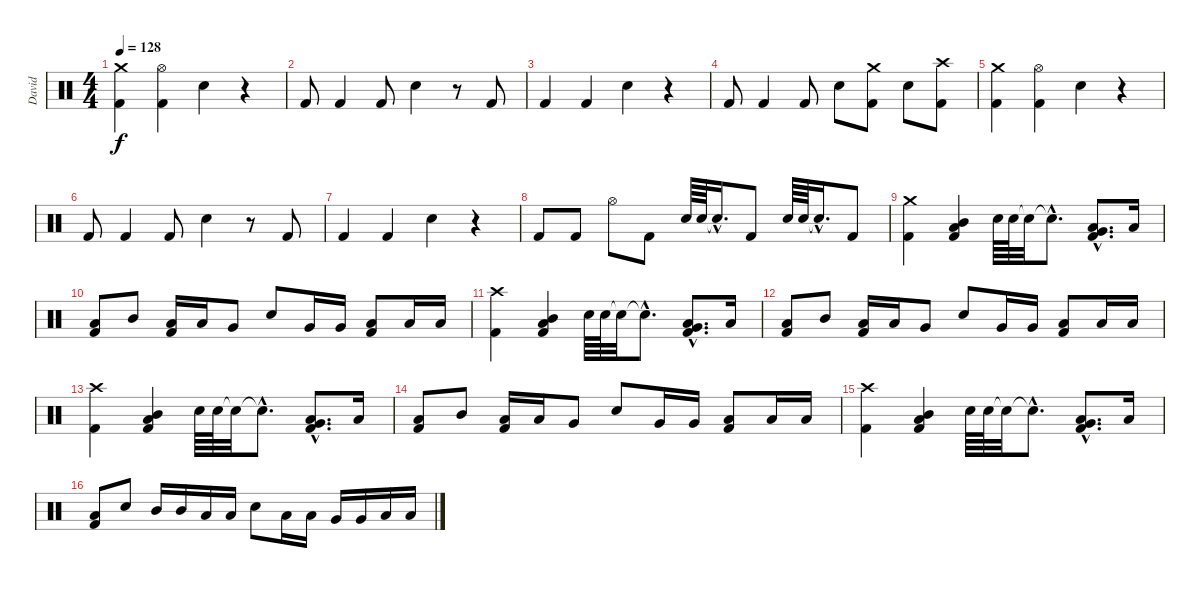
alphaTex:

\track ("David" "David") {instrument percussion}
\staff {score}
\articulation defaults
\ts (4 4)
\tempo 128
\clef neutral
\ks c
("Crash medium (hit)" "Kick (hit) 2").4{dy f} ("Hi-Hat (open)" "Kick (hit) 2").4 "Snare (hit) 2".4 r.4 |
"Kick (hit) 2".8 "Kick (hit) 2".4 "Kick (hit) 2".8 "Snare (hit) 2".4 r.8 "Kick (hit) 2".8 |
"Kick (hit) 2".4 "Kick (hit) 2".4 "Snare (hit) 2".4 r.4 |
"Kick (hit) 2".8 "Kick (hit) 2".4 "Kick (hit) 2".8 "Snare (hit) 2".8 ("Crash medium (hit)" "Kick (hit) 2").8 "Snare (hit) 2".8 ("Crash high (hit)" "Kick (hit) 2").8 |
("Crash medium (hit)" "Kick (hit) 2").4 ("Hi-Hat (open)" "Kick (hit) 2").4 "Snare (hit) 2".4 r.4 |
"Kick (hit) 2".8 "Kick (hit) 2".4 "Kick (hit) 2".8 "Snare (hit) 2".4 r.8 "Kick (hit) 2".8 |
"Kick (hit) 2".4 "Kick (hit) 2".4 "Snare (hit) 2".4 r.4 |
"Kick (hit) 2".8 "Kick (hit) 2".8 "Hi-Hat (open)".8 "Kick (hit) 2".8 "Snare (hit) 2".64 "Snare (hit) 2".64 "Snare (hit)"{hac t}.16{d} "Kick (hit) 2".8 "Snare (hit) 2".64 "Snare (hit) 2".64 "Snare (hit)"{hac t}.16{d} "Kick (hit) 2".8 |
("Crash medium (hit)" "Kick (hit) 2").4 ("Mid Tom (hit)" "Low Tom (hit)" "Kick (hit) 2").4 "Snare (hit) 2".64 "Snare (hit) 2".64 "Snare (hit)"{t}.32 "Snare (hit)"{hac t}.8{d} ("Low Tom (hit)"{hac} "Very Low Tom (hit)"{hac} "Kick (hit) 2"{hac}).8{d} "Low Tom (hit)".16 |
("Low Tom (hit)" "Kick (hit) 2").8 "Mid Tom (hit)".8 ("Low Tom (hit)" "Kick (hit) 2").16 "Low Tom (hit)".16 "Very Low Tom (hit)".8 "Snare (hit) 2".8 "Very Low Tom (hit)".16 "Very Low Tom (hit)".16 ("Low Floor Tom (hit)" "Kick (hit) 2").8 "Low Floor Tom (hit)".16 "Low Floor Tom (hit)".16 |
("Crash high (hit)" "Kick (hit) 2").4 ("Mid Tom (hit)" "Low Tom (hit)" "Kick (hit) 2").4 "Snare (hit) 2".64 "Snare (hit) 2".64 "Snare (hit)"{t}.32 "Snare (hit)"{hac t}.8{d} ("Low Tom (hit)"{hac} "Very Low Tom (hit)"{hac} "Kick (hit) 2"{hac}).8{d} "Low Tom (hit)".16 |
("Low Tom (hit)" "Kick (hit) 2").8 "Mid Tom (hit)".8 ("Low Tom (hit)" "Kick (hit) 2").16 "Low Tom (hit)".16 "Very Low Tom (hit)".8 "Snare (hit) 2".8 "Very Low Tom (hit)".16 "Very Low Tom (hit)".16 ("Low Floor Tom (hit)" "Kick (hit) 2").8 "Low Floor Tom (hit)".16 "Low Floor Tom (hit)".16 |
("Crash high (hit)" "Kick (hit) 2").4 ("Mid Tom (hit)" "Low Tom (hit)" "Kick (hit) 2").4 "Snare (hit) 2".64 "Snare (hit) 2".64 "Snare (hit)"{t}.32 "Snare (hit)"{hac t}.8{d} ("Low Tom (hit)"{hac} "Very Low Tom (hit)"{hac} "Kick (hit) 2"{hac}).8{d} "Low Tom (hit)".16 |
("Low Tom (hit)" "Kick (hit) 2").8 "Mid Tom (hit)".8 ("Low Tom (hit)" "Kick (hit) 2").16 "Low Tom (hit)".16 "Very Low Tom (hit)".8 "Snare (hit) 2".8 "Very Low Tom (hit)".16 "Very Low Tom (hit)".16 ("Low Floor Tom (hit)" "Kick (hit) 2").8 "Low Floor Tom (hit)".16 "Low Floor Tom (hit)".16 |
("Crash high (hit)" "Kick (hit) 2").4 ("Mid Tom (hit)" "Low Tom (hit)" "Kick (hit) 2").4 "Snare (hit) 2".64 "Snare (hit) 2".64 "Snare (hit)"{t}.32 "Snare (hit)"{hac t}.8{d} ("Low Tom (hit)"{hac} "Very Low Tom (hit)"{hac} "Kick (hit) 2"{hac}).8{d} "Low Tom (hit)".16 |
("Low Tom (hit)" "Kick (hit) 2").8 "Snare (hit) 2".8 "Mid Tom (hit)".16 "Mid Tom (hit)".16 "Low Tom (hit)".16 "Low Tom (hit)".16 "Snare (hit) 2".8 "Low Tom (hit)".16 "Low Tom (hit)".16 "Very Low Tom (hit)".16 "Very Low Tom (hit)".16 "Low Floor Tom (hit)".16 "Low Floor Tom (hit)".16
